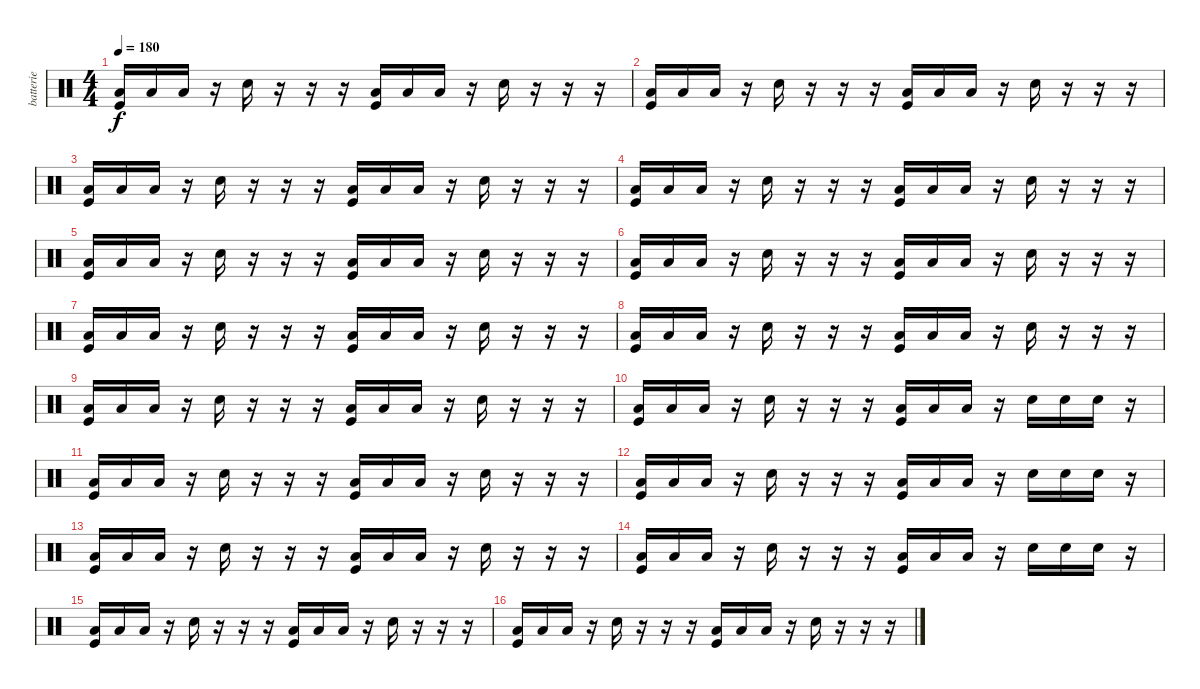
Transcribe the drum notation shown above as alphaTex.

\track ("batterie" "batterie") {instrument percussion}
\staff {score}
\articulation defaults
\ts (4 4)
\tempo 180
\clef neutral
\ks c
("Low Floor Tom (hit)" "Kick (hit)").16{dy f} "Low Floor Tom (hit)".16 "Low Floor Tom (hit)".16 r.16 "Snare (hit) 2".16 r.16 r.16 r.16 ("Low Floor Tom (hit)" "Kick (hit)").16 "Low Floor Tom (hit)".16 "Low Floor Tom (hit)".16 r.16 "Snare (hit) 2".16 r.16 r.16 r.16 |
("Low Floor Tom (hit)" "Kick (hit)").16 "Low Floor Tom (hit)".16 "Low Floor Tom (hit)".16 r.16 "Snare (hit) 2".16 r.16 r.16 r.16 ("Low Floor Tom (hit)" "Kick (hit)").16 "Low Floor Tom (hit)".16 "Low Floor Tom (hit)".16 r.16 "Snare (hit) 2".16 r.16 r.16 r.16 |
("Low Floor Tom (hit)" "Kick (hit)").16 "Low Floor Tom (hit)".16 "Low Floor Tom (hit)".16 r.16 "Snare (hit) 2".16 r.16 r.16 r.16 ("Low Floor Tom (hit)" "Kick (hit)").16 "Low Floor Tom (hit)".16 "Low Floor Tom (hit)".16 r.16 "Snare (hit) 2".16 r.16 r.16 r.16 |
("Low Floor Tom (hit)" "Kick (hit)").16 "Low Floor Tom (hit)".16 "Low Floor Tom (hit)".16 r.16 "Snare (hit) 2".16 r.16 r.16 r.16 ("Low Floor Tom (hit)" "Kick (hit)").16 "Low Floor Tom (hit)".16 "Low Floor Tom (hit)".16 r.16 "Snare (hit) 2".16 r.16 r.16 r.16 |
("Low Floor Tom (hit)" "Kick (hit)").16 "Low Floor Tom (hit)".16 "Low Floor Tom (hit)".16 r.16 "Snare (hit) 2".16 r.16 r.16 r.16 ("Low Floor Tom (hit)" "Kick (hit)").16 "Low Floor Tom (hit)".16 "Low Floor Tom (hit)".16 r.16 "Snare (hit) 2".16 r.16 r.16 r.16 |
("Low Floor Tom (hit)" "Kick (hit)").16 "Low Floor Tom (hit)".16 "Low Floor Tom (hit)".16 r.16 "Snare (hit) 2".16 r.16 r.16 r.16 ("Low Floor Tom (hit)" "Kick (hit)").16 "Low Floor Tom (hit)".16 "Low Floor Tom (hit)".16 r.16 "Snare (hit) 2".16 r.16 r.16 r.16 |
("Low Floor Tom (hit)" "Kick (hit)").16 "Low Floor Tom (hit)".16 "Low Floor Tom (hit)".16 r.16 "Snare (hit) 2".16 r.16 r.16 r.16 ("Low Floor Tom (hit)" "Kick (hit)").16 "Low Floor Tom (hit)".16 "Low Floor Tom (hit)".16 r.16 "Snare (hit) 2".16 r.16 r.16 r.16 |
("Low Floor Tom (hit)" "Kick (hit)").16 "Low Floor Tom (hit)".16 "Low Floor Tom (hit)".16 r.16 "Snare (hit) 2".16 r.16 r.16 r.16 ("Low Floor Tom (hit)" "Kick (hit)").16 "Low Floor Tom (hit)".16 "Low Floor Tom (hit)".16 r.16 "Snare (hit) 2".16 r.16 r.16 r.16 |
("Low Floor Tom (hit)" "Kick (hit)").16 "Low Floor Tom (hit)".16 "Low Floor Tom (hit)".16 r.16 "Snare (hit) 2".16 r.16 r.16 r.16 ("Low Floor Tom (hit)" "Kick (hit)").16 "Low Floor Tom (hit)".16 "Low Floor Tom (hit)".16 r.16 "Snare (hit) 2".16 r.16 r.16 r.16 |
("Low Floor Tom (hit)" "Kick (hit)").16 "Low Floor Tom (hit)".16 "Low Floor Tom (hit)".16 r.16 "Snare (hit) 2".16 r.16 r.16 r.16 ("Low Floor Tom (hit)" "Kick (hit)").16 "Low Floor Tom (hit)".16 "Low Floor Tom (hit)".16 r.16 "Snare (hit) 2".16 "Snare (hit) 2".16 "Snare (hit) 2".16 r.16 |
("Low Floor Tom (hit)" "Kick (hit)").16 "Low Floor Tom (hit)".16 "Low Floor Tom (hit)".16 r.16 "Snare (hit) 2".16 r.16 r.16 r.16 ("Low Floor Tom (hit)" "Kick (hit)").16 "Low Floor Tom (hit)".16 "Low Floor Tom (hit)".16 r.16 "Snare (hit) 2".16 r.16 r.16 r.16 |
("Low Floor Tom (hit)" "Kick (hit)").16 "Low Floor Tom (hit)".16 "Low Floor Tom (hit)".16 r.16 "Snare (hit) 2".16 r.16 r.16 r.16 ("Low Floor Tom (hit)" "Kick (hit)").16 "Low Floor Tom (hit)".16 "Low Floor Tom (hit)".16 r.16 "Snare (hit) 2".16 "Snare (hit) 2".16 "Snare (hit) 2".16 r.16 |
("Low Floor Tom (hit)" "Kick (hit)").16 "Low Floor Tom (hit)".16 "Low Floor Tom (hit)".16 r.16 "Snare (hit) 2".16 r.16 r.16 r.16 ("Low Floor Tom (hit)" "Kick (hit)").16 "Low Floor Tom (hit)".16 "Low Floor Tom (hit)".16 r.16 "Snare (hit) 2".16 r.16 r.16 r.16 |
("Low Floor Tom (hit)" "Kick (hit)").16 "Low Floor Tom (hit)".16 "Low Floor Tom (hit)".16 r.16 "Snare (hit) 2".16 r.16 r.16 r.16 ("Low Floor Tom (hit)" "Kick (hit)").16 "Low Floor Tom (hit)".16 "Low Floor Tom (hit)".16 r.16 "Snare (hit) 2".16 "Snare (hit) 2".16 "Snare (hit) 2".16 r.16 |
("Low Floor Tom (hit)" "Kick (hit)").16 "Low Floor Tom (hit)".16 "Low Floor Tom (hit)".16 r.16 "Snare (hit) 2".16 r.16 r.16 r.16 ("Low Floor Tom (hit)" "Kick (hit)").16 "Low Floor Tom (hit)".16 "Low Floor Tom (hit)".16 r.16 "Snare (hit) 2".16 r.16 r.16 r.16 |
("Low Floor Tom (hit)" "Kick (hit)").16 "Low Floor Tom (hit)".16 "Low Floor Tom (hit)".16 r.16 "Snare (hit) 2".16 r.16 r.16 r.16 ("Low Floor Tom (hit)" "Kick (hit)").16 "Low Floor Tom (hit)".16 "Low Floor Tom (hit)".16 r.16 "Snare (hit) 2".16 r.16 r.16 r.16
